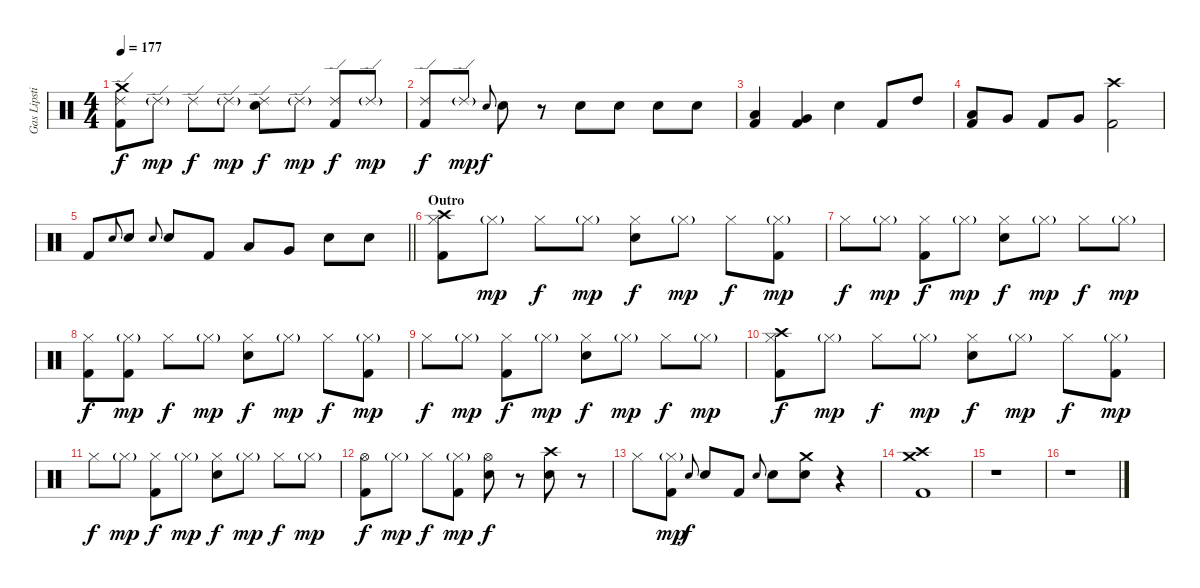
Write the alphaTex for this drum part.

\track ("Gas Lipstick (Drums)" "Gas Lipsti") {instrument percussion}
\staff {score}
\articulation defaults
\ts (4 4)
\tempo 177
\clef neutral
\ks c
("Crash medium (hit)" "Ride (edge) 2" "Kick (hit) 2").8{dy f} "Ride (edge) 2"{g}.8{dy mp} "Ride (edge) 2".8{dy f} "Ride (edge) 2"{g}.8{dy mp} ("Ride (edge) 2" "Snare (hit) 2").8{dy f} "Ride (edge) 2"{g}.8{dy mp} ("Ride (edge) 2" "Kick (hit) 2").8{dy f} "Ride (edge) 2"{g}.8{dy mp} |
("Ride (edge) 2" "Kick (hit) 2").8{dy f} "Ride (edge) 2"{g}.8{dy mp} "Snare (hit) 2".8{gr onbeat dy f} "Snare (hit) 2".8 r.8 "Snare (hit) 2".8 "Snare (hit) 2".8 "Snare (hit) 2".8 "Snare (hit) 2".8 |
("Low Tom (hit)" "Kick (hit) 2").4 ("Very Low Tom (hit)" "Kick (hit) 2").4 "Snare (hit) 2".4 "Kick (hit) 2".8 "High Tom (hit)".8 |
("Low Tom (hit)" "Kick (hit) 2").8 "Very Low Tom (hit)".8 "Kick (hit) 2".8 "Very Low Tom (hit)".8 ("Crash high (hit)" "Kick (hit) 2").2 |
\barLineRight lightlight "Kick (hit) 2".8 "Snare (hit) 2".8{gr onbeat} "Snare (hit) 2".8 "Snare (hit) 2".8{gr onbeat} "Snare (hit) 2".8 "Kick (hit) 2".8 "Low Tom (hit)".8 "Very Low Tom (hit)".8 "Snare (hit) 2".8 "Snare (hit) 2".8
|
\section ("" "Outro")
("Crash high (hit)" "Hi-Hat (closed)" "Kick (hit) 2").8 "Hi-Hat (closed)"{g}.8{dy mp} "Hi-Hat (closed)".8{dy f} "Hi-Hat (closed)"{g}.8{dy mp} ("Hi-Hat (closed)" "Snare (hit) 2").8{dy f} "Hi-Hat (closed)"{g}.8{dy mp} "Hi-Hat (closed)".8{dy f} ("Hi-Hat (closed)"{g} "Kick (hit) 2").8{dy mp} |
"Hi-Hat (closed)".8{dy f} "Hi-Hat (closed)"{g}.8{dy mp} ("Hi-Hat (closed)" "Kick (hit) 2").8{dy f} "Hi-Hat (closed)"{g}.8{dy mp} ("Hi-Hat (closed)" "Snare (hit) 2").8{dy f} "Hi-Hat (closed)"{g}.8{dy mp} "Hi-Hat (closed)".8{dy f} "Hi-Hat (closed)"{g}.8{dy mp} |
("Hi-Hat (closed)" "Kick (hit) 2").8{dy f} ("Hi-Hat (closed)"{g} "Kick (hit) 2").8{dy mp} "Hi-Hat (closed)".8{dy f} "Hi-Hat (closed)"{g}.8{dy mp} ("Hi-Hat (closed)" "Snare (hit) 2").8{dy f} "Hi-Hat (closed)"{g}.8{dy mp} "Hi-Hat (closed)".8{dy f} ("Hi-Hat (closed)"{g} "Kick (hit) 2").8{dy mp} |
"Hi-Hat (closed)".8{dy f} "Hi-Hat (closed)"{g}.8{dy mp} ("Hi-Hat (closed)" "Kick (hit) 2").8{dy f} "Hi-Hat (closed)"{g}.8{dy mp} ("Hi-Hat (closed)" "Snare (hit) 2").8{dy f} "Hi-Hat (closed)"{g}.8{dy mp} "Hi-Hat (closed)".8{dy f} "Hi-Hat (closed)"{g}.8{dy mp} |
("Crash high (hit)" "Hi-Hat (closed)" "Kick (hit) 2").8{dy f} "Hi-Hat (closed)"{g}.8{dy mp} "Hi-Hat (closed)".8{dy f} "Hi-Hat (closed)"{g}.8{dy mp} ("Hi-Hat (closed)" "Snare (hit) 2").8{dy f} "Hi-Hat (closed)"{g}.8{dy mp} "Hi-Hat (closed)".8{dy f} ("Hi-Hat (closed)"{g} "Kick (hit) 2").8{dy mp} |
"Hi-Hat (closed)".8{dy f} "Hi-Hat (closed)"{g}.8{dy mp} ("Hi-Hat (closed)" "Kick (hit) 2").8{dy f} "Hi-Hat (closed)"{g}.8{dy mp} ("Hi-Hat (closed)" "Snare (hit) 2").8{dy f} "Hi-Hat (closed)"{g}.8{dy mp} "Hi-Hat (closed)".8{dy f} "Hi-Hat (closed)"{g}.8{dy mp} |
("Hi-Hat (open)" "Kick (hit) 2").8{dy f} "Hi-Hat (closed)"{g}.8{dy mp} "Hi-Hat (closed)".8{dy f} ("Hi-Hat (closed)"{g} "Kick (hit) 2").8{dy mp} ("Hi-Hat (open)" "Snare (hit) 2").8{dy f} r.8 ("Crash high (hit)" "Snare (hit) 2").8 r.8 |
"Hi-Hat (closed)".8 ("Hi-Hat (closed)"{g} "Kick (hit) 2").8{dy mp} "Snare (hit) 2".8{gr onbeat dy f} "Snare (hit) 2".8 "Kick (hit) 2".8 "Snare (hit) 2".8{gr onbeat} "Snare (hit) 2".8 ("Crash medium (hit)" "Snare (hit) 2").8 r.4 |
("Crash medium (hit)" "Crash high (hit)" "Kick (hit) 2").1 |
r.1 |
r.1
